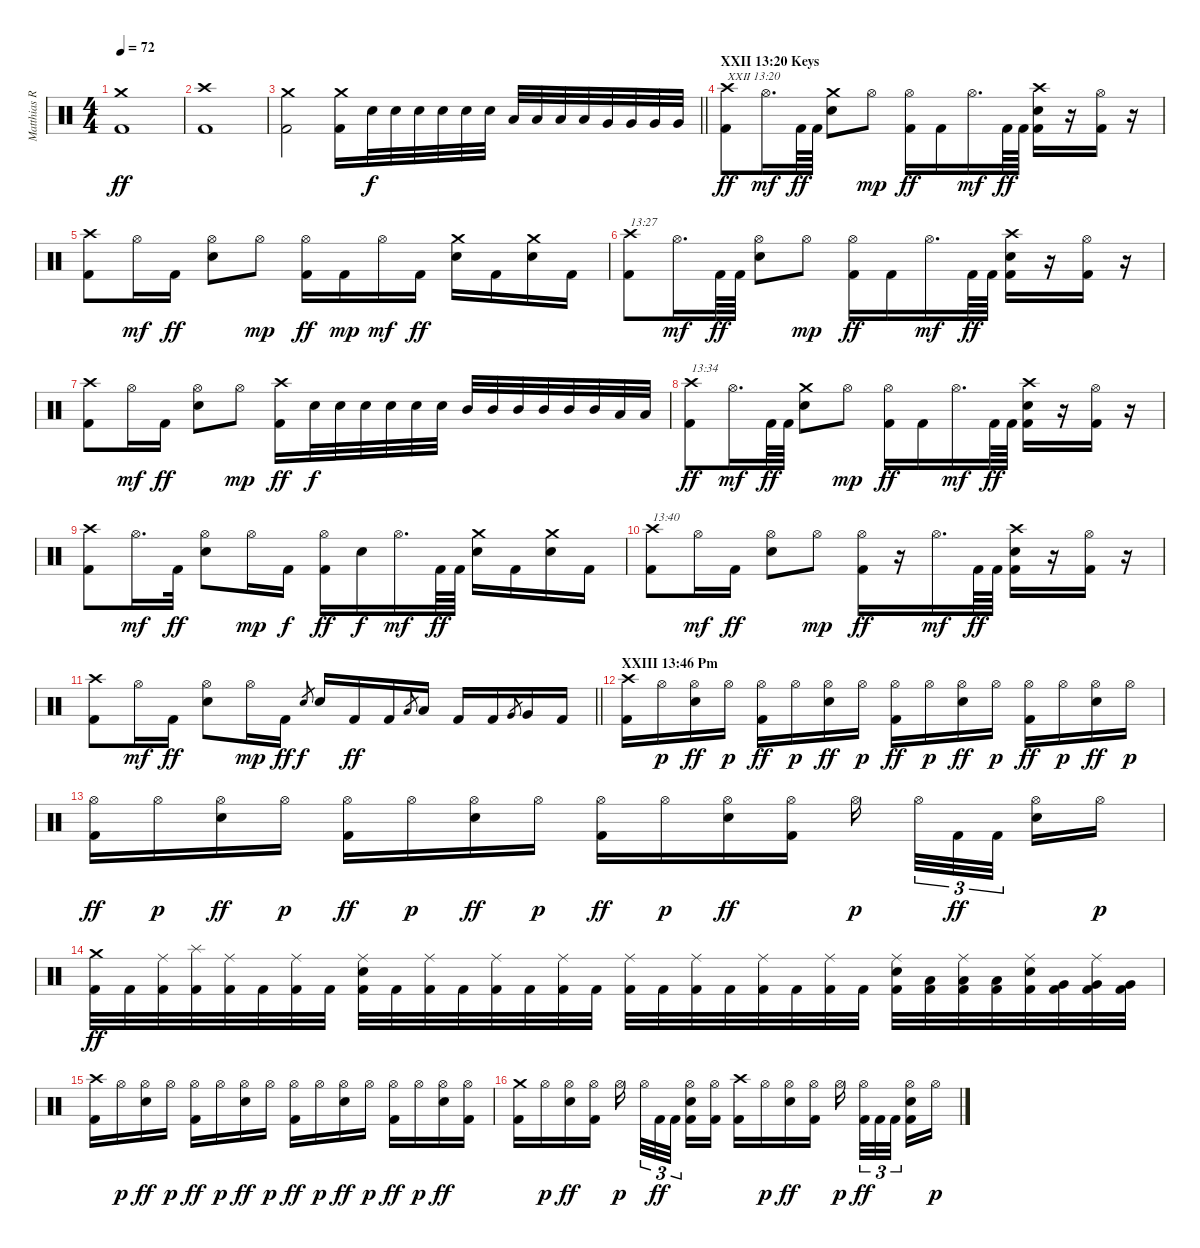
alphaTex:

\track ("Matthias R." "Matthias R") {instrument percussion}
\staff {score}
\articulation defaults
\ts (4 4)
\tempo 72
\clef neutral
\ks c
("Crash medium (hit)" "Kick (hit) 2").1{dy ff} |
("Crash high (hit)" "Kick (hit) 2").1 |
\barLineRight lightlight
("Crash medium (hit)" "Kick (hit) 2").2 ("Crash medium (hit)" "Kick (hit) 2").16 "Electric Snare (hit)".32{dy f} "Electric Snare (hit)".32 "Electric Snare (hit)".32 "Electric Snare (hit)".32 "Electric Snare (hit)".32 "Electric Snare (hit)".32 "Low Tom (hit)".32 "Low Tom (hit)".32 "Low Tom (hit)".32 "Low Tom (hit)".32 "Very Low Tom (hit)".32 "Very Low Tom (hit)".32 "Very Low Tom (hit)".32 "Very Low Tom (hit)".32 |
\section ("" "XXII 13:20 Keys")
("Crash high (hit)" "Kick (hit) 2").8{txt "XXII 13:20" dy ff} "Hi-Hat (open)".16{d dy mf} "Kick (hit) 2".64{dy ff} "Kick (hit) 2".64 ("Crash medium (hit)" "Electric Snare (hit)").8 "Hi-Hat (open)".8{dy mp} ("Hi-Hat (open)" "Kick (hit) 2").16{dy ff} "Kick (hit) 2".16 "Hi-Hat (open)".16{d dy mf} "Kick (hit) 2".64{dy ff} "Kick (hit) 2".64 ("Crash high (hit)" "Electric Snare (hit)" "Kick (hit) 2").16 r.16 ("Hi-Hat (open)" "Kick (hit) 2").16 r.16 |
("Crash high (hit)" "Kick (hit) 2").8 "Hi-Hat (open)".16{dy mf} "Kick (hit) 2".16{dy ff} ("Hi-Hat (open)" "Electric Snare (hit)").8 "Hi-Hat (open)".8{dy mp} ("Hi-Hat (open)" "Kick (hit) 2").16{dy ff} "Kick (hit) 2".16{dy mp} "Hi-Hat (open)".16{dy mf} "Kick (hit) 2".16{dy ff} ("Crash medium (hit)" "Electric Snare (hit)").16 "Kick (hit) 2".16 ("Crash medium (hit)" "Electric Snare (hit)").16 "Kick (hit) 2".16 |
("Crash high (hit)" "Kick (hit) 2").8{txt "13:27"} "Hi-Hat (open)".16{d dy mf} "Kick (hit) 2".64{dy ff} "Kick (hit) 2".64 ("Hi-Hat (open)" "Electric Snare (hit)").8 "Hi-Hat (open)".8{dy mp} ("Hi-Hat (open)" "Kick (hit) 2").16{dy ff} "Kick (hit) 2".16 "Hi-Hat (open)".16{d dy mf} "Kick (hit) 2".64{dy ff} "Kick (hit) 2".64 ("Crash high (hit)" "Electric Snare (hit)" "Kick (hit) 2").16 r.16 ("Hi-Hat (open)" "Kick (hit) 2").16 r.16 |
("Crash high (hit)" "Kick (hit) 2").8 "Hi-Hat (open)".16{dy mf} "Kick (hit) 2".16{dy ff} ("Hi-Hat (open)" "Electric Snare (hit)").8 "Hi-Hat (open)".8{dy mp} ("Crash high (hit)" "Kick (hit) 2").16{dy ff} "Electric Snare (hit)".32{dy f} "Electric Snare (hit)".32 "Electric Snare (hit)".32 "Electric Snare (hit)".32 "Electric Snare (hit)".32 "Electric Snare (hit)".32 "Mid Tom (hit)".32 "Mid Tom (hit)".32 "Mid Tom (hit)".32 "Mid Tom (hit)".32 "Mid Tom (hit)".32 "Mid Tom (hit)".32 "Low Tom (hit)".32 "Low Tom (hit)".32 |
("Crash high (hit)" "Kick (hit) 2").8{txt "13:34" dy ff} "Hi-Hat (open)".16{d dy mf} "Kick (hit) 2".64{dy ff} "Kick (hit) 2".64 ("Crash medium (hit)" "Electric Snare (hit)").8 "Hi-Hat (open)".8{dy mp} ("Hi-Hat (open)" "Kick (hit) 2").16{dy ff} "Kick (hit) 2".16 "Hi-Hat (open)".16{d dy mf} "Kick (hit) 2".64{dy ff} "Kick (hit) 2".64 ("Crash high (hit)" "Electric Snare (hit)" "Kick (hit) 2").16 r.16 ("Hi-Hat (open)" "Kick (hit) 2").16 r.16 |
("Crash high (hit)" "Kick (hit) 2").8 "Hi-Hat (open)".16{d dy mf} "Kick (hit) 2".32{dy ff} ("Hi-Hat (open)" "Electric Snare (hit)").8 "Hi-Hat (open)".16{dy mp} "Kick (hit) 2".16{dy f} ("Hi-Hat (open)" "Kick (hit) 2").16{dy ff} "Electric Snare (hit)".16{dy f} "Hi-Hat (open)".16{d dy mf} "Kick (hit) 2".64{dy ff} "Kick (hit) 2".64 ("Crash medium (hit)" "Electric Snare (hit)").16 "Kick (hit) 2".16 ("Crash medium (hit)" "Electric Snare (hit)").16 "Kick (hit) 2".16 |
("Crash high (hit)" "Kick (hit) 2").8{txt "13:40"} "Hi-Hat (open)".16{dy mf} "Kick (hit) 2".16{dy ff} ("Hi-Hat (open)" "Electric Snare (hit)").8 "Hi-Hat (open)".8{dy mp} ("Hi-Hat (open)" "Kick (hit) 2").16{dy ff} r.16 "Hi-Hat (open)".16{d dy mf} "Kick (hit) 2".64{dy ff} "Kick (hit) 2".64 ("Crash high (hit)" "Electric Snare (hit)" "Kick (hit) 2").16 r.16 ("Hi-Hat (open)" "Kick (hit) 2").16 r.16 |
\barLineRight lightlight
("Crash high (hit)" "Kick (hit) 2").8 "Hi-Hat (open)".16{dy mf} "Kick (hit) 2".16{dy ff} ("Hi-Hat (open)" "Electric Snare (hit)").8 "Hi-Hat (open)".16{dy mp} "Kick (hit) 2".16{dy ff} "Electric Snare (hit)".8{gr dy f} "Electric Snare (hit)".16 "Kick (hit) 2".16{dy ff} "Kick (hit) 2".16 "Low Tom (hit)".8{gr} "Low Tom (hit)".16 "Kick (hit) 2".16 "Kick (hit) 2".16 "Very Low Tom (hit)".8{gr} "Very Low Tom (hit)".16 "Kick (hit) 2".16 |
\section ("" "XXIII 13:46 Pm")
("Crash high (hit)" "Kick (hit) 2").16 "Hi-Hat (open)".16{dy p} ("Hi-Hat (open)" "Electric Snare (hit)").16{dy ff} "Hi-Hat (open)".16{dy p} ("Hi-Hat (open)" "Kick (hit) 2").16{dy ff} "Hi-Hat (open)".16{dy p} ("Hi-Hat (open)" "Electric Snare (hit)").16{dy ff} "Hi-Hat (open)".16{dy p} ("Hi-Hat (open)" "Kick (hit) 2").16{dy ff} "Hi-Hat (open)".16{dy p} ("Hi-Hat (open)" "Electric Snare (hit)").16{dy ff} "Hi-Hat (open)".16{dy p} ("Hi-Hat (open)" "Kick (hit) 2").16{dy ff} "Hi-Hat (open)".16{dy p} ("Hi-Hat (open)" "Electric Snare (hit)").16{dy ff} "Hi-Hat (open)".16{dy p} |
("Hi-Hat (open)" "Kick (hit) 2").16{dy ff} "Hi-Hat (open)".16{dy p} ("Hi-Hat (open)" "Electric Snare (hit)").16{dy ff} "Hi-Hat (open)".16{dy p} ("Hi-Hat (open)" "Kick (hit) 2").16{dy ff} "Hi-Hat (open)".16{dy p} ("Hi-Hat (open)" "Electric Snare (hit)").16{dy ff} "Hi-Hat (open)".16{dy p} ("Hi-Hat (open)" "Kick (hit) 2").16{dy ff} "Hi-Hat (open)".16{dy p} ("Hi-Hat (open)" "Electric Snare (hit)").16{dy ff} ("Hi-Hat (open)" "Kick (hit) 2").16 "Hi-Hat (open)".16{dy p beam splitsecondary} "Hi-Hat (open)".32{tu (3 2)} "Kick (hit) 2".32{tu (3 2) dy ff} "Kick (hit) 2".32{tu (3 2) beam splitsecondary} ("Hi-Hat (open)" "Electric Snare (hit)").16 "Hi-Hat (open)".16{dy p} |
("Crash medium (hit)" "Kick (hit) 2").32{dy ff} "Kick (hit) 2".32 ("Ride (middle)" "Kick (hit) 2").32 ("Splash (hit)" "Kick (hit) 2").32 ("Ride (middle)" "Kick (hit) 2").32 "Kick (hit) 2".32 ("Ride (middle)" "Kick (hit) 2").32 "Kick (hit) 2".32 ("Ride (middle)" "Electric Snare (hit)" "Kick (hit) 2").32 "Kick (hit) 2".32 ("Ride (middle)" "Kick (hit) 2").32 "Kick (hit) 2".32 ("Ride (middle)" "Kick (hit) 2").32 "Kick (hit) 2".32 ("Ride (middle)" "Kick (hit) 2").32 "Kick (hit) 2".32 ("Ride (middle)" "Kick (hit) 2").32 "Kick (hit) 2".32 ("Ride (middle)" "Kick (hit) 2").32 "Kick (hit) 2".32 ("Ride (middle)" "Kick (hit) 2").32 "Kick (hit) 2".32 ("Ride (middle)" "Kick (hit) 2").32 "Kick (hit) 2".32 ("Ride (middle)" "Electric Snare (hit)" "Kick (hit) 2").32 ("Low Tom (hit)" "Kick (hit) 2").32 ("Ride (middle)" "Low Tom (hit)" "Kick (hit) 2").32 ("Low Tom (hit)" "Kick (hit) 2").32 ("Ride (middle)" "Electric Snare (hit)" "Kick (hit) 2").32 ("Very Low Tom (hit)" "Kick (hit) 2").32 ("Ride (middle)" "Very Low Tom (hit)" "Kick (hit) 2").32 ("Very Low Tom (hit)" "Kick (hit) 2").32 |
("Crash high (hit)" "Kick (hit) 2").16 "Hi-Hat (open)".16{dy p} ("Hi-Hat (open)" "Electric Snare (hit)").16{dy ff} "Hi-Hat (open)".16{dy p} ("Hi-Hat (open)" "Kick (hit) 2").16{dy ff} "Hi-Hat (open)".16{dy p} ("Hi-Hat (open)" "Electric Snare (hit)").16{dy ff} "Hi-Hat (open)".16{dy p} ("Hi-Hat (open)" "Kick (hit) 2").16{dy ff} "Hi-Hat (open)".16{dy p} ("Hi-Hat (open)" "Electric Snare (hit)").16{dy ff} "Hi-Hat (open)".16{dy p} ("Hi-Hat (open)" "Kick (hit) 2").16{dy ff} "Hi-Hat (open)".16{dy p} ("Hi-Hat (open)" "Electric Snare (hit)").16{dy ff} ("Hi-Hat (open)" "Kick (hit) 2").16 |
("Crash medium (hit)" "Kick (hit) 2").16 "Hi-Hat (open)".16{dy p} ("Hi-Hat (open)" "Electric Snare (hit)").16{dy ff} ("Hi-Hat (open)" "Kick (hit) 2").16 "Hi-Hat (open)".16{dy p beam splitsecondary} "Hi-Hat (open)".32{tu (3 2)} "Kick (hit) 2".32{tu (3 2) dy ff} "Kick (hit) 2".32{tu (3 2) beam splitsecondary} ("Hi-Hat (open)" "Electric Snare (hit)" "Kick (hit) 2").16 ("Hi-Hat (open)" "Kick (hit) 2").16 ("Crash high (hit)" "Kick (hit) 2").16 "Hi-Hat (open)".16{dy p} ("Hi-Hat (open)" "Electric Snare (hit)").16{dy ff} ("Hi-Hat (open)" "Kick (hit) 2").16 "Hi-Hat (open)".16{dy p beam splitsecondary} ("Hi-Hat (open)" "Kick (hit) 2").32{tu (3 2) dy ff} "Kick (hit) 2".32{tu (3 2)} "Kick (hit) 2".32{tu (3 2) beam splitsecondary} ("Hi-Hat (open)" "Electric Snare (hit)" "Kick (hit) 2").16 "Hi-Hat (open)".16{dy p}
